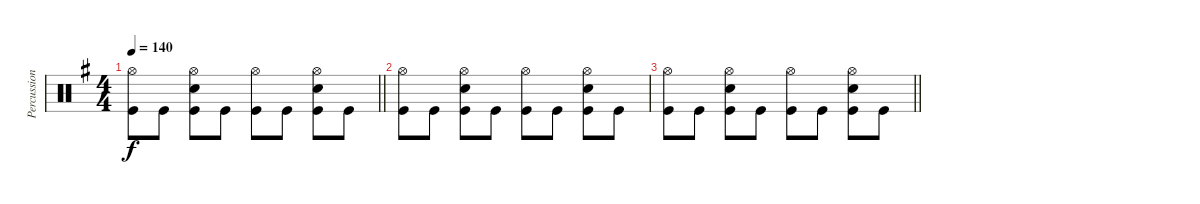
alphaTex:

\track ("Percussion" "Percussion") {instrument percussion}
\staff {score}
\articulation defaults
\ts (4 4)
\tempo 140
\clef neutral
\barLineRight lightlight
\ks g
("Hi-Hat (open)" "Kick (hit)").8{dy f} "Kick (hit)".8 ("Hi-Hat (open)" "Snare (hit) 2" "Kick (hit)").8 "Kick (hit)".8 ("Hi-Hat (open)" "Kick (hit)").8 "Kick (hit)".8 ("Hi-Hat (open)" "Snare (hit) 2" "Kick (hit)").8 "Kick (hit)".8 |
("Hi-Hat (open)" "Kick (hit)").8 "Kick (hit)".8 ("Hi-Hat (open)" "Snare (hit) 2" "Kick (hit)").8 "Kick (hit)".8 ("Hi-Hat (open)" "Kick (hit)").8 "Kick (hit)".8 ("Hi-Hat (open)" "Snare (hit) 2" "Kick (hit)").8 "Kick (hit)".8 |
\barLineRight lightlight
("Hi-Hat (open)" "Kick (hit)").8 "Kick (hit)".8 ("Hi-Hat (open)" "Snare (hit) 2" "Kick (hit)").8 "Kick (hit)".8 ("Hi-Hat (open)" "Kick (hit)").8 "Kick (hit)".8 ("Hi-Hat (open)" "Snare (hit) 2" "Kick (hit)").8 "Kick (hit)".8
